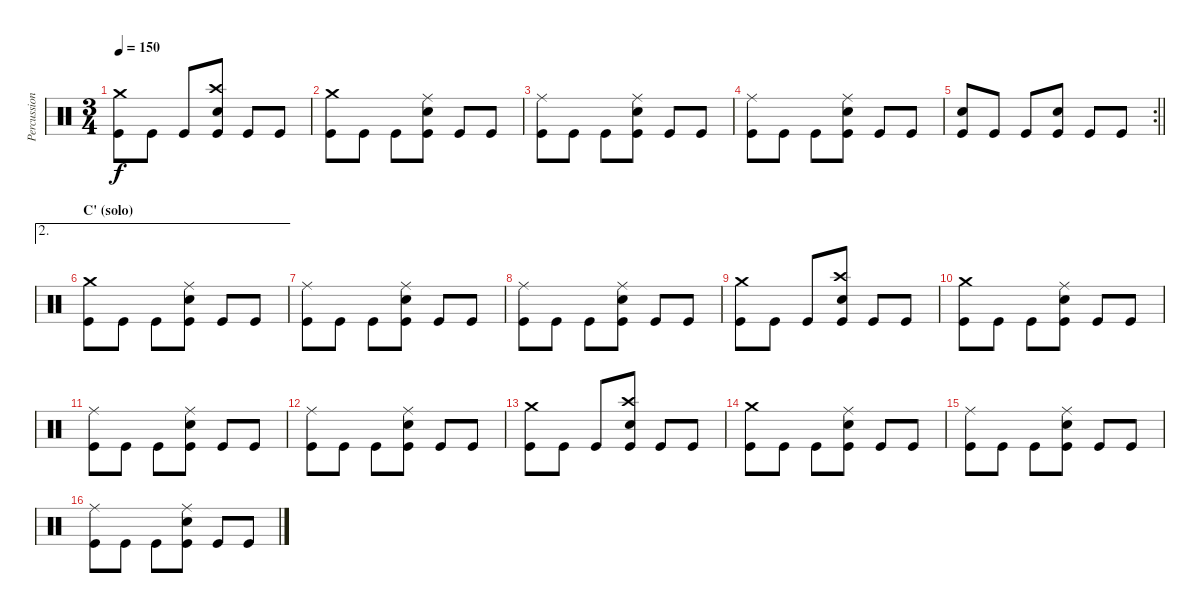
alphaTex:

\track ("Percussion" "Percussion") {instrument percussion}
\staff {score}
\articulation defaults
\ts (3 4)
\tempo 150
\clef neutral
\ks c
("Crash medium (hit)" "Kick (hit)").8{dy f} "Kick (hit)".8 "Kick (hit)".8 ("Crash high (hit)" "Snare (hit) 2" "Kick (hit)").8 "Kick (hit)".8 "Kick (hit)".8 |
("Crash medium (hit)" "Kick (hit)").8 "Kick (hit)".8 "Kick (hit)".8 ("Ride (middle)" "Snare (hit) 2" "Kick (hit)").8 "Kick (hit)".8 "Kick (hit)".8 |
("Ride (middle)" "Kick (hit)").8 "Kick (hit)".8 "Kick (hit)".8 ("Ride (middle)" "Snare (hit) 2" "Kick (hit)").8 "Kick (hit)".8 "Kick (hit)".8 |
("Ride (middle)" "Kick (hit)").8 "Kick (hit)".8 "Kick (hit)".8 ("Ride (middle)" "Snare (hit) 2" "Kick (hit)").8 "Kick (hit)".8 "Kick (hit)".8 |
\rc 2
\barLineRight lightlight
("Snare (hit) 2" "Kick (hit)").8 "Kick (hit)".8 "Kick (hit)".8 ("Snare (hit) 2" "Kick (hit)").8 "Kick (hit)".8 "Kick (hit)".8 |
\ae 2
\section ("" "C' (solo)")
("Crash medium (hit)" "Kick (hit)").8 "Kick (hit)".8 "Kick (hit)".8 ("Ride (middle)" "Snare (hit) 2" "Kick (hit)").8 "Kick (hit)".8 "Kick (hit)".8 |
("Ride (middle)" "Kick (hit)").8 "Kick (hit)".8 "Kick (hit)".8 ("Ride (middle)" "Snare (hit) 2" "Kick (hit)").8 "Kick (hit)".8 "Kick (hit)".8 |
("Ride (middle)" "Kick (hit)").8 "Kick (hit)".8 "Kick (hit)".8 ("Ride (middle)" "Snare (hit) 2" "Kick (hit)").8 "Kick (hit)".8 "Kick (hit)".8 |
("Crash medium (hit)" "Kick (hit)").8 "Kick (hit)".8 "Kick (hit)".8 ("Crash high (hit)" "Snare (hit) 2" "Kick (hit)").8 "Kick (hit)".8 "Kick (hit)".8 |
("Crash medium (hit)" "Kick (hit)").8 "Kick (hit)".8 "Kick (hit)".8 ("Ride (middle)" "Snare (hit) 2" "Kick (hit)").8 "Kick (hit)".8 "Kick (hit)".8 |
("Ride (middle)" "Kick (hit)").8 "Kick (hit)".8 "Kick (hit)".8 ("Ride (middle)" "Snare (hit) 2" "Kick (hit)").8 "Kick (hit)".8 "Kick (hit)".8 |
("Ride (middle)" "Kick (hit)").8 "Kick (hit)".8 "Kick (hit)".8 ("Ride (middle)" "Snare (hit) 2" "Kick (hit)").8 "Kick (hit)".8 "Kick (hit)".8 |
("Crash medium (hit)" "Kick (hit)").8 "Kick (hit)".8 "Kick (hit)".8 ("Crash high (hit)" "Snare (hit) 2" "Kick (hit)").8 "Kick (hit)".8 "Kick (hit)".8 |
("Crash medium (hit)" "Kick (hit)").8 "Kick (hit)".8 "Kick (hit)".8 ("Ride (middle)" "Snare (hit) 2" "Kick (hit)").8 "Kick (hit)".8 "Kick (hit)".8 |
("Ride (middle)" "Kick (hit)").8 "Kick (hit)".8 "Kick (hit)".8 ("Ride (middle)" "Snare (hit) 2" "Kick (hit)").8 "Kick (hit)".8 "Kick (hit)".8 |
("Ride (middle)" "Kick (hit)").8 "Kick (hit)".8 "Kick (hit)".8 ("Ride (middle)" "Snare (hit) 2" "Kick (hit)").8 "Kick (hit)".8 "Kick (hit)".8
